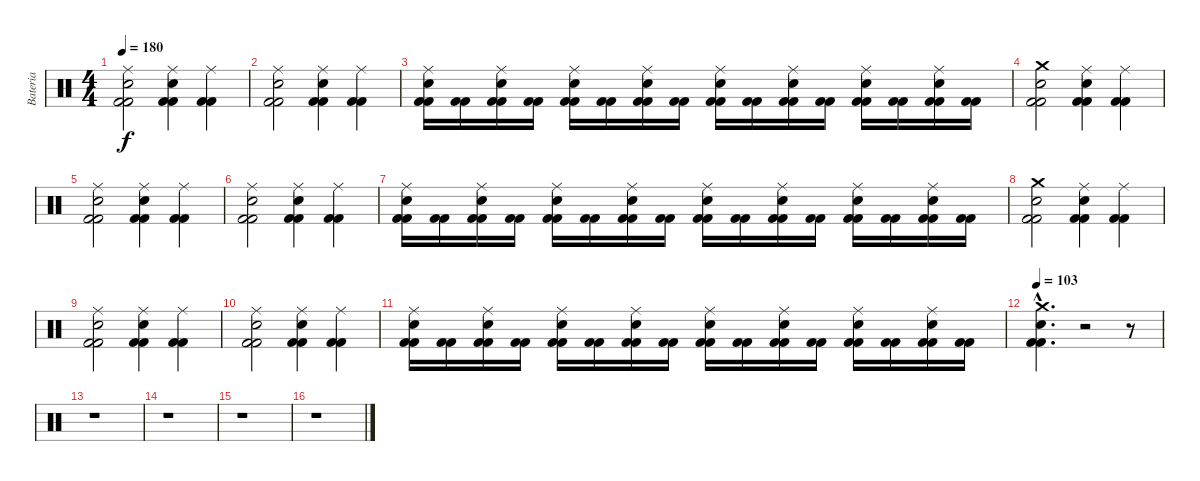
\track ("Bateria" "Bateria") {instrument percussion}
\staff {score}
\articulation defaults
\ts (4 4)
\tempo 180
\clef neutral
\ks c
("Kick (hit) 2" "Kick (hit) 2" "Snare (hit) 2" "Ride (middle)").2{dy f} ("Kick (hit) 2" "Kick (hit) 2" "Snare (hit) 2" "Ride (middle)").4 ("Kick (hit) 2" "Kick (hit) 2" "Ride (middle)").4 |
("Kick (hit) 2" "Kick (hit) 2" "Snare (hit) 2" "Ride (middle)").2 ("Kick (hit) 2" "Kick (hit) 2" "Snare (hit) 2" "Ride (middle)").4 ("Kick (hit) 2" "Kick (hit) 2" "Ride (middle)").4 |
("Kick (hit) 2" "Kick (hit) 2" "Snare (hit) 2" "Ride (middle)").16 ("Kick (hit) 2" "Kick (hit) 2").16 ("Kick (hit) 2" "Kick (hit) 2" "Snare (hit) 2" "Ride (middle)").16 ("Kick (hit) 2" "Kick (hit) 2").16 ("Kick (hit) 2" "Kick (hit) 2" "Snare (hit) 2" "Ride (middle)").16 ("Kick (hit) 2" "Kick (hit) 2").16 ("Kick (hit) 2" "Kick (hit) 2" "Snare (hit) 2" "Ride (middle)").16 ("Kick (hit) 2" "Kick (hit) 2").16 ("Kick (hit) 2" "Kick (hit) 2" "Snare (hit) 2" "Ride (middle)").16 ("Kick (hit) 2" "Kick (hit) 2").16 ("Kick (hit) 2" "Kick (hit) 2" "Snare (hit) 2" "Ride (middle)").16 ("Kick (hit) 2" "Kick (hit) 2").16 ("Kick (hit) 2" "Kick (hit) 2" "Snare (hit) 2" "Ride (middle)").16 ("Kick (hit) 2" "Kick (hit) 2").16 ("Kick (hit) 2" "Kick (hit) 2" "Snare (hit) 2" "Ride (middle)").16 ("Kick (hit) 2" "Kick (hit) 2").16 |
("Kick (hit) 2" "Kick (hit) 2" "Snare (hit) 2" "Crash medium (hit)").2 ("Kick (hit) 2" "Kick (hit) 2" "Snare (hit) 2" "Ride (middle)").4 ("Kick (hit) 2" "Kick (hit) 2" "Ride (middle)").4 |
("Kick (hit) 2" "Kick (hit) 2" "Snare (hit) 2" "Ride (middle)").2 ("Kick (hit) 2" "Kick (hit) 2" "Snare (hit) 2" "Ride (middle)").4 ("Kick (hit) 2" "Kick (hit) 2" "Ride (middle)").4 |
("Kick (hit) 2" "Kick (hit) 2" "Snare (hit) 2" "Ride (middle)").2 ("Kick (hit) 2" "Kick (hit) 2" "Snare (hit) 2" "Ride (middle)").4 ("Kick (hit) 2" "Kick (hit) 2" "Ride (middle)").4 |
("Kick (hit) 2" "Kick (hit) 2" "Snare (hit) 2" "Ride (middle)").16 ("Kick (hit) 2" "Kick (hit) 2").16 ("Kick (hit) 2" "Kick (hit) 2" "Snare (hit) 2" "Ride (middle)").16 ("Kick (hit) 2" "Kick (hit) 2").16 ("Kick (hit) 2" "Kick (hit) 2" "Snare (hit) 2" "Ride (middle)").16 ("Kick (hit) 2" "Kick (hit) 2").16 ("Kick (hit) 2" "Kick (hit) 2" "Snare (hit) 2" "Ride (middle)").16 ("Kick (hit) 2" "Kick (hit) 2").16 ("Kick (hit) 2" "Kick (hit) 2" "Snare (hit) 2" "Ride (middle)").16 ("Kick (hit) 2" "Kick (hit) 2").16 ("Kick (hit) 2" "Kick (hit) 2" "Snare (hit) 2" "Ride (middle)").16 ("Kick (hit) 2" "Kick (hit) 2").16 ("Kick (hit) 2" "Kick (hit) 2" "Snare (hit) 2" "Ride (middle)").16 ("Kick (hit) 2" "Kick (hit) 2").16 ("Kick (hit) 2" "Kick (hit) 2" "Snare (hit) 2" "Ride (middle)").16 ("Kick (hit) 2" "Kick (hit) 2").16 |
("Kick (hit) 2" "Kick (hit) 2" "Snare (hit) 2" "Crash medium (hit)").2 ("Kick (hit) 2" "Kick (hit) 2" "Snare (hit) 2" "Ride (middle)").4 ("Kick (hit) 2" "Kick (hit) 2" "Ride (middle)").4 |
("Kick (hit) 2" "Kick (hit) 2" "Snare (hit) 2" "Ride (middle)").2 ("Kick (hit) 2" "Kick (hit) 2" "Snare (hit) 2" "Ride (middle)").4 ("Kick (hit) 2" "Kick (hit) 2" "Ride (middle)").4 |
("Kick (hit) 2" "Kick (hit) 2" "Snare (hit) 2" "Ride (middle)").2 ("Kick (hit) 2" "Kick (hit) 2" "Snare (hit) 2" "Ride (middle)").4 ("Kick (hit) 2" "Kick (hit) 2" "Ride (middle)").4 |
("Kick (hit) 2" "Kick (hit) 2" "Snare (hit) 2" "Ride (middle)").16 ("Kick (hit) 2" "Kick (hit) 2").16 ("Kick (hit) 2" "Kick (hit) 2" "Snare (hit) 2" "Ride (middle)").16 ("Kick (hit) 2" "Kick (hit) 2").16 ("Kick (hit) 2" "Kick (hit) 2" "Snare (hit) 2" "Ride (middle)").16 ("Kick (hit) 2" "Kick (hit) 2").16 ("Kick (hit) 2" "Kick (hit) 2" "Snare (hit) 2" "Ride (middle)").16 ("Kick (hit) 2" "Kick (hit) 2").16 ("Kick (hit) 2" "Kick (hit) 2" "Snare (hit) 2" "Ride (middle)").16 ("Kick (hit) 2" "Kick (hit) 2").16 ("Kick (hit) 2" "Kick (hit) 2" "Snare (hit) 2" "Ride (middle)").16 ("Kick (hit) 2" "Kick (hit) 2").16 ("Kick (hit) 2" "Kick (hit) 2" "Snare (hit) 2" "Ride (middle)").16 ("Kick (hit) 2" "Kick (hit) 2").16 ("Kick (hit) 2" "Kick (hit) 2" "Snare (hit) 2" "Ride (middle)").16 ("Kick (hit) 2" "Kick (hit) 2").16 |
\tempo 103
("Kick (hit) 2"{hac} "Kick (hit) 2"{hac} "Snare (hit) 2"{hac} "Crash medium (hit)"{hac}).4{d} r.2 r.8 |
r.1 |
r.1 |
r.1 |
r.1
